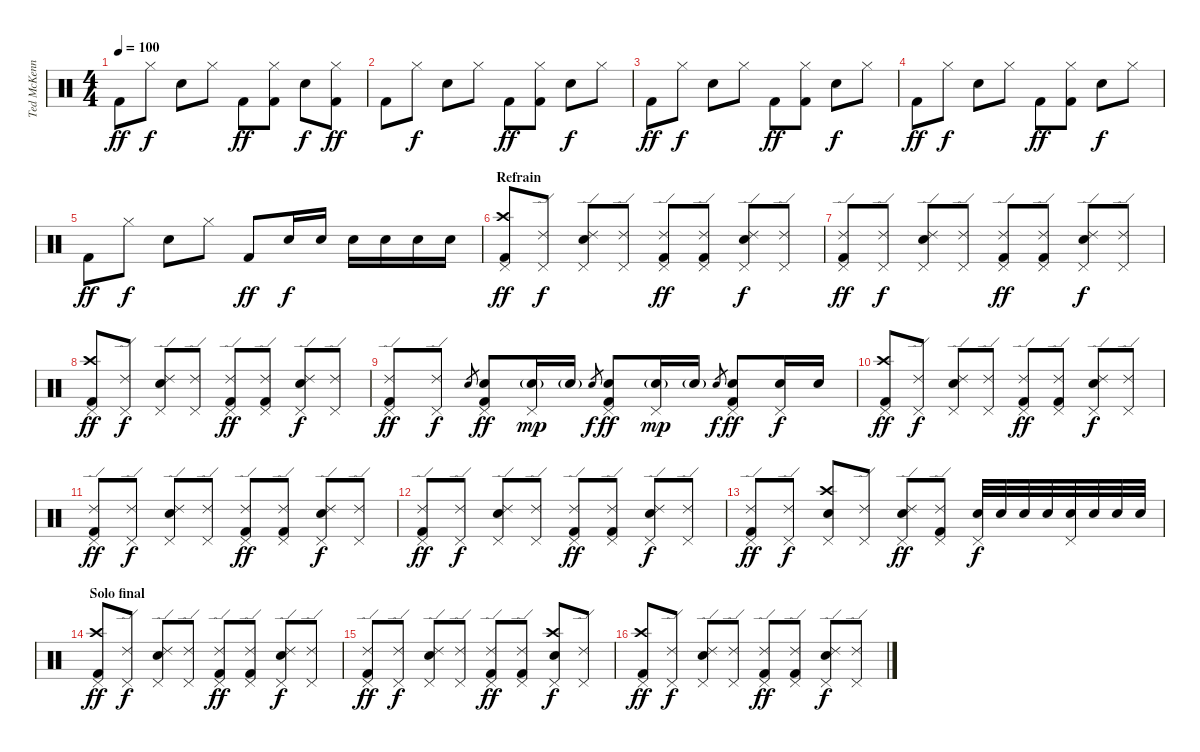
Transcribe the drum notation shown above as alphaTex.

\track ("Ted McKenna" "Ted McKenn") {instrument percussion}
\staff {score}
\articulation defaults
\ts (4 4)
\tempo 100
\clef neutral
\ks c "Kick (hit) 2".8{dy ff} "Hi-Hat (closed)".8{dy f} "Snare (hit) 2".8 "Hi-Hat (closed)".8 "Kick (hit) 2".8{dy ff}
("Hi-Hat (closed)" "Kick (hit) 2").8 "Snare (hit) 2".8{dy f} ("Hi-Hat (closed)" "Kick (hit) 2").8{dy ff} |
"Kick (hit) 2".8 "Hi-Hat (closed)".8{dy f} "Snare (hit) 2".8 "Hi-Hat (closed)".8 "Kick (hit) 2".8{dy ff} ("Hi-Hat (closed)" "Kick (hit) 2").8 "Snare (hit) 2".8{dy f} "Hi-Hat (closed)".8 |
"Kick (hit) 2".8{dy ff} "Hi-Hat (closed)".8{dy f} "Snare (hit) 2".8 "Hi-Hat (closed)".8 "Kick (hit) 2".8{dy ff} ("Hi-Hat (closed)" "Kick (hit) 2").8 "Snare (hit) 2".8{dy f} "Hi-Hat (closed)".8 |
"Kick (hit) 2".8{dy ff} "Hi-Hat (closed)".8{dy f} "Snare (hit) 2".8 "Hi-Hat (closed)".8 "Kick (hit) 2".8{dy ff} ("Hi-Hat (closed)" "Kick (hit) 2").8 "Snare (hit) 2".8{dy f} "Hi-Hat (closed)".8 |
"Kick (hit) 2".8{dy ff} "Hi-Hat (closed)".8{dy f} "Snare (hit) 2".8 "Hi-Hat (closed)".8 "Kick (hit) 2".8{dy ff} "Snare (hit) 2".16{dy f} "Snare (hit) 2".16 "Snare (hit) 2".16 "Snare (hit) 2".16 "Snare (hit) 2".16 "Snare (hit) 2".16 |
\section ("" "Refrain")
("Crash high (hit)" "Pedal Hi-Hat (hit)" "Kick (hit) 2").8{dy ff} ("Ride (edge) 2" "Pedal Hi-Hat (hit)").8{dy f} ("Ride (edge) 2" "Snare (hit) 2" "Pedal Hi-Hat (hit)").8 ("Ride (edge) 2" "Pedal Hi-Hat (hit)").8 ("Ride (edge) 2" "Pedal Hi-Hat (hit)" "Kick (hit) 2").8{dy ff} ("Ride (edge) 2" "Pedal Hi-Hat (hit)" "Kick (hit) 2").8 ("Ride (edge) 2" "Snare (hit) 2" "Pedal Hi-Hat (hit)").8{dy f} ("Ride (edge) 2" "Pedal Hi-Hat (hit)").8 |
("Ride (edge) 2" "Pedal Hi-Hat (hit)" "Kick (hit) 2").8{dy ff} ("Ride (edge) 2" "Pedal Hi-Hat (hit)").8{dy f} ("Ride (edge) 2" "Snare (hit) 2" "Pedal Hi-Hat (hit)").8 ("Ride (edge) 2" "Pedal Hi-Hat (hit)").8 ("Ride (edge) 2" "Pedal Hi-Hat (hit)" "Kick (hit) 2").8{dy ff} ("Ride (edge) 2" "Pedal Hi-Hat (hit)" "Kick (hit) 2").8 ("Ride (edge) 2" "Snare (hit) 2" "Pedal Hi-Hat (hit)").8{dy f} ("Ride (edge) 2" "Pedal Hi-Hat (hit)").8 |
("Crash high (hit)" "Pedal Hi-Hat (hit)" "Kick (hit) 2").8{dy ff} ("Ride (edge) 2" "Pedal Hi-Hat (hit)").8{dy f} ("Ride (edge) 2" "Snare (hit) 2" "Pedal Hi-Hat (hit)").8 ("Ride (edge) 2" "Pedal Hi-Hat (hit)").8 ("Ride (edge) 2" "Pedal Hi-Hat (hit)" "Kick (hit) 2").8{dy ff} ("Ride (edge) 2" "Pedal Hi-Hat (hit)" "Kick (hit) 2").8 ("Ride (edge) 2" "Snare (hit) 2" "Pedal Hi-Hat (hit)").8{dy f} ("Ride (edge) 2" "Pedal Hi-Hat (hit)").8 |
("Ride (edge) 2" "Pedal Hi-Hat (hit)" "Kick (hit) 2").8{dy ff} ("Ride (edge) 2" "Pedal Hi-Hat (hit)").8{dy f} "Snare (hit) 2".8{gr} ("Snare (hit) 2" "Pedal Hi-Hat (hit)" "Kick (hit) 2").8{dy ff} ("Snare (hit) 2"{g} "Pedal Hi-Hat (hit)").16{dy mp} "Snare (hit) 2"{g}.16 "Snare (hit) 2".8{gr dy f} ("Snare (hit) 2" "Pedal Hi-Hat (hit)" "Kick (hit) 2").8{dy ff} ("Snare (hit) 2"{g} "Pedal Hi-Hat (hit)").16{dy mp} "Snare (hit) 2"{g}.16 "Snare (hit) 2".8{gr dy f} ("Snare (hit) 2" "Pedal Hi-Hat (hit)" "Kick (hit) 2").8{dy ff} ("Snare (hit) 2" "Pedal Hi-Hat (hit)").16{dy f} "Snare (hit) 2".16 |
("Crash high (hit)" "Pedal Hi-Hat (hit)" "Kick (hit) 2").8{dy ff} ("Ride (edge) 2" "Pedal Hi-Hat (hit)").8{dy f} ("Ride (edge) 2" "Snare (hit) 2" "Pedal Hi-Hat (hit)").8 ("Ride (edge) 2" "Pedal Hi-Hat (hit)").8 ("Ride (edge) 2" "Pedal Hi-Hat (hit)" "Kick (hit) 2").8{dy ff} ("Ride (edge) 2" "Pedal Hi-Hat (hit)" "Kick (hit) 2").8 ("Ride (edge) 2" "Snare (hit) 2" "Pedal Hi-Hat (hit)").8{dy f} ("Ride (edge) 2" "Pedal Hi-Hat (hit)").8 |
("Ride (edge) 2" "Pedal Hi-Hat (hit)" "Kick (hit) 2").8{dy ff} ("Ride (edge) 2" "Pedal Hi-Hat (hit)").8{dy f} ("Ride (edge) 2" "Snare (hit) 2" "Pedal Hi-Hat (hit)").8 ("Ride (edge) 2" "Pedal Hi-Hat (hit)").8 ("Ride (edge) 2" "Pedal Hi-Hat (hit)" "Kick (hit) 2").8{dy ff} ("Ride (edge) 2" "Pedal Hi-Hat (hit)" "Kick (hit) 2").8 ("Ride (edge) 2" "Snare (hit) 2" "Pedal Hi-Hat (hit)").8{dy f} ("Ride (edge) 2" "Pedal Hi-Hat (hit)").8 |
("Ride (edge) 2" "Pedal Hi-Hat (hit)" "Kick (hit) 2").8{dy ff} ("Ride (edge) 2" "Pedal Hi-Hat (hit)").8{dy f} ("Ride (edge) 2" "Snare (hit) 2" "Pedal Hi-Hat (hit)").8 ("Ride (edge) 2" "Pedal Hi-Hat (hit)").8 ("Ride (edge) 2" "Pedal Hi-Hat (hit)" "Kick (hit) 2").8{dy ff} ("Ride (edge) 2" "Pedal Hi-Hat (hit)" "Kick (hit) 2").8 ("Ride (edge) 2" "Snare (hit) 2" "Pedal Hi-Hat (hit)").8{dy f} ("Ride (edge) 2" "Pedal Hi-Hat (hit)").8 |
("Ride (edge) 2" "Pedal Hi-Hat (hit)" "Kick (hit) 2").8{dy ff} ("Ride (edge) 2" "Pedal Hi-Hat (hit)").8{dy f} ("Crash high (hit)" "Snare (hit) 2" "Pedal Hi-Hat (hit)").8 ("Ride (edge) 2" "Pedal Hi-Hat (hit)").8 ("Ride (edge) 2" "Snare (hit) 2" "Pedal Hi-Hat (hit)").8{dy ff} ("Ride (edge) 2" "Pedal Hi-Hat (hit)" "Kick (hit) 2").8 ("Snare (hit) 2" "Pedal Hi-Hat (hit)").32{dy f} "Snare (hit) 2".32 "Snare (hit) 2".32 "Snare (hit) 2".32 ("Snare (hit) 2" "Pedal Hi-Hat (hit)").32 "Snare (hit) 2".32 "Snare (hit) 2".32 "Snare (hit) 2".32 |
\section ("" "Solo final")
("Crash high (hit)" "Pedal Hi-Hat (hit)" "Kick (hit) 2").8{dy ff} ("Ride (edge) 2" "Pedal Hi-Hat (hit)").8{dy f} ("Ride (edge) 2" "Snare (hit) 2" "Pedal Hi-Hat (hit)").8 ("Ride (edge) 2" "Pedal Hi-Hat (hit)").8 ("Ride (edge) 2" "Pedal Hi-Hat (hit)" "Kick (hit) 2").8{dy ff} ("Ride (edge) 2" "Pedal Hi-Hat (hit)" "Kick (hit) 2").8 ("Ride (edge) 2" "Snare (hit) 2" "Pedal Hi-Hat (hit)").8{dy f} ("Ride (edge) 2" "Pedal Hi-Hat (hit)").8 |
("Ride (edge) 2" "Pedal Hi-Hat (hit)" "Kick (hit) 2").8{dy ff} ("Ride (edge) 2" "Pedal Hi-Hat (hit)").8{dy f} ("Ride (edge) 2" "Snare (hit) 2" "Pedal Hi-Hat (hit)").8 ("Ride (edge) 2" "Pedal Hi-Hat (hit)").8 ("Ride (edge) 2" "Pedal Hi-Hat (hit)" "Kick (hit) 2").8{dy ff} ("Ride (edge) 2" "Pedal Hi-Hat (hit)" "Kick (hit) 2").8 ("Crash high (hit)" "Snare (hit) 2" "Pedal Hi-Hat (hit)").8{dy f} ("Ride (edge) 2" "Pedal Hi-Hat (hit)").8 |
("Crash high (hit)" "Pedal Hi-Hat (hit)" "Kick (hit) 2").8{dy ff} ("Ride (edge) 2" "Pedal Hi-Hat (hit)").8{dy f} ("Ride (edge) 2" "Snare (hit) 2" "Pedal Hi-Hat (hit)").8 ("Ride (edge) 2" "Pedal Hi-Hat (hit)").8 ("Ride (edge) 2" "Pedal Hi-Hat (hit)" "Kick (hit) 2").8{dy ff} ("Ride (edge) 2" "Pedal Hi-Hat (hit)" "Kick (hit) 2").8 ("Ride (edge) 2" "Snare (hit) 2" "Pedal Hi-Hat (hit)").8{dy f} ("Ride (edge) 2" "Pedal Hi-Hat (hit)").8
